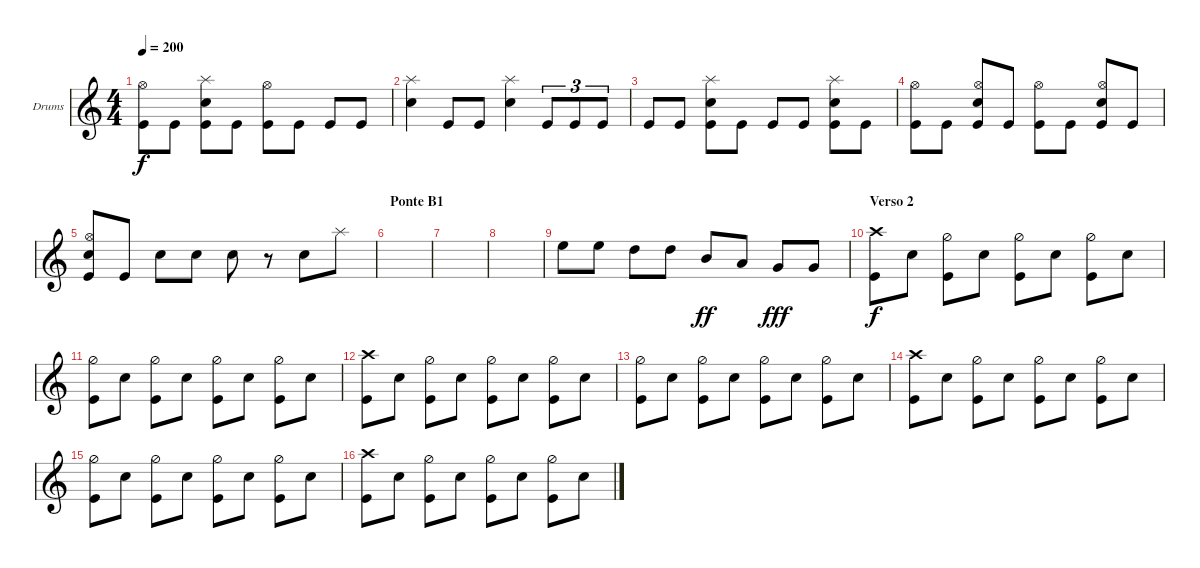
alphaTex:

\defaultSystemsLayout 4
\bracketExtendMode groupsimilarinstruments
\firstSystemTrackNameOrientation horizontal
\otherSystemsTrackNameOrientation horizontal
\track ("Drums" "Drums") {instrument percussion}
\staff {score}
\articulation defaults
\ts (4 4)
\tempo 200
\clef g2
\ks c
("Kick (hit)" "Hi-Hat (open)").8{dy f} "Kick (hit)".8 ("Kick (hit)" "Snare (hit) 2" "Splash (hit)").8 "Kick (hit)".8 ("Kick (hit)" "Hi-Hat (open)").8 "Kick (hit)".8 "Kick (hit)".8 "Kick (hit)".8 |
("Snare (hit) 2" "Splash (hit)").4 "Kick (hit)".8 "Kick (hit)".8 ("Snare (hit) 2" "Splash (hit)").4 "Kick (hit)".8{tu (3 2)} "Kick (hit)".8{tu (3 2)} "Kick (hit)".8{tu (3 2)} |
"Kick (hit)".8 "Kick (hit)".8 ("Snare (hit) 2" "Splash (hit)" "Kick (hit)").8 "Kick (hit)".8 "Kick (hit)".8 "Kick (hit)".8 ("Kick (hit)" "Snare (hit) 2" "Splash (hit)").8 "Kick (hit)".8 |
("Kick (hit)" "Hi-Hat (open)").8 "Kick (hit)".8 ("Kick (hit)" "Hi-Hat (open)" "Snare (hit) 2").8 "Kick (hit)".8 ("Kick (hit)" "Hi-Hat (open)").8 "Kick (hit)".8 ("Kick (hit)" "Hi-Hat (open)" "Snare (hit) 2").8 "Kick (hit)".8 |
("Kick (hit)" "Hi-Hat (open)" "Snare (hit) 2").8 "Kick (hit)".8 "Snare (hit) 2".8 "Snare (hit) 2".8 "Snare (hit) 2".8 r.8 "Snare (hit) 2".8 "Splash (hit)".8 |
\section ("" "Ponte B1")
|
|
|
"High Floor Tom (hit)".8 "High Floor Tom (hit)".8 "High Tom (hit)".8 "High Tom (hit)".8 "Mid Tom (hit)".8{dy ff} "Low Tom (hit)".8 "Very Low Tom (hit)".8{dy fff} "Very Low Tom (hit)".8 |
\section ("" "Verso 2")
("Kick (hit)" "Crash high (hit)").8{dy f} "Snare (hit) 2".8 ("Hi-Hat (half)" "Kick (hit)").8 "Snare (hit) 2".8 ("Hi-Hat (half)" "Kick (hit)").8 "Snare (hit) 2".8 ("Hi-Hat (half)" "Kick (hit)").8 "Snare (hit) 2".8 |
("Hi-Hat (half)" "Kick (hit)").8 "Snare (hit) 2".8 ("Hi-Hat (half)" "Kick (hit)").8 "Snare (hit) 2".8 ("Hi-Hat (half)" "Kick (hit)").8 "Snare (hit) 2".8 ("Hi-Hat (half)" "Kick (hit)").8 "Snare (hit) 2".8 |
("Kick (hit)" "Crash high (hit)").8 "Snare (hit) 2".8 ("Hi-Hat (half)" "Kick (hit)").8 "Snare (hit) 2".8 ("Hi-Hat (half)" "Kick (hit)").8 "Snare (hit) 2".8 ("Hi-Hat (half)" "Kick (hit)").8 "Snare (hit) 2".8 |
("Hi-Hat (half)" "Kick (hit)").8 "Snare (hit) 2".8 ("Hi-Hat (half)" "Kick (hit)").8 "Snare (hit) 2".8 ("Hi-Hat (half)" "Kick (hit)").8 "Snare (hit) 2".8 ("Hi-Hat (half)" "Kick (hit)").8 "Snare (hit) 2".8 |
("Kick (hit)" "Crash high (hit)").8 "Snare (hit) 2".8 ("Hi-Hat (half)" "Kick (hit)").8 "Snare (hit) 2".8 ("Hi-Hat (half)" "Kick (hit)").8 "Snare (hit) 2".8 ("Hi-Hat (half)" "Kick (hit)").8 "Snare (hit) 2".8 |
("Hi-Hat (half)" "Kick (hit)").8 "Snare (hit) 2".8 ("Hi-Hat (half)" "Kick (hit)").8 "Snare (hit) 2".8 ("Hi-Hat (half)" "Kick (hit)").8 "Snare (hit) 2".8 ("Hi-Hat (half)" "Kick (hit)").8 "Snare (hit) 2".8 |
("Kick (hit)" "Crash high (hit)").8 "Snare (hit) 2".8 ("Hi-Hat (half)" "Kick (hit)").8 "Snare (hit) 2".8 ("Hi-Hat (half)" "Kick (hit)").8 "Snare (hit) 2".8 ("Hi-Hat (half)" "Kick (hit)").8 "Snare (hit) 2".8
